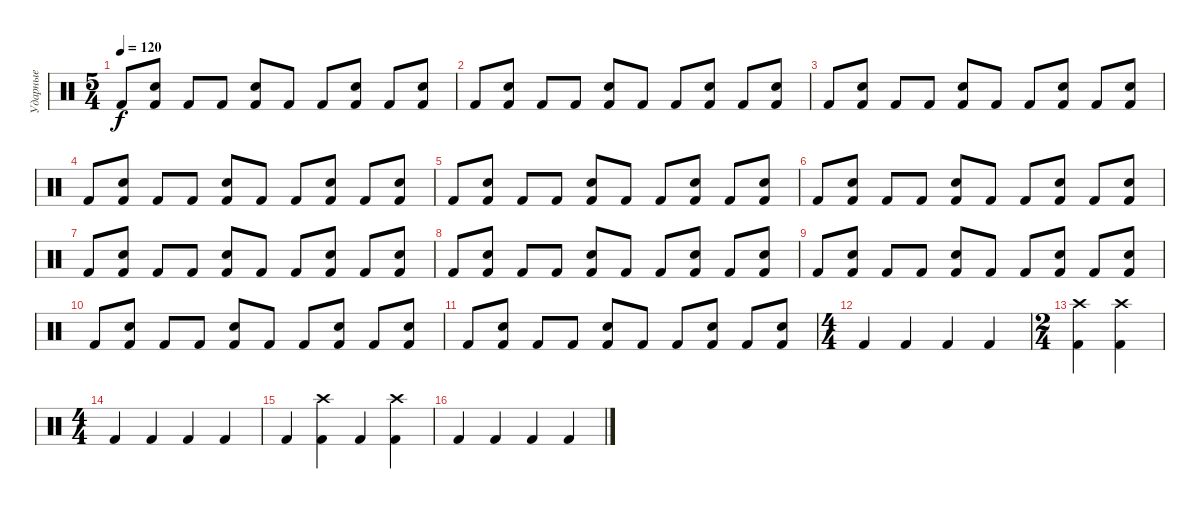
\track ("Ударные" "Ударные") {instrument percussion}
\staff {score}
\articulation defaults
\ts (5 4)
\tempo 120
\clef neutral
\ks c "Kick (hit) 2".8{dy f}
("Kick (hit) 2" "Electric Snare (hit)").8 "Kick (hit) 2".8 "Kick (hit) 2".8 ("Kick (hit) 2" "Electric Snare (hit)").8 "Kick (hit) 2".8 "Kick (hit) 2".8 ("Kick (hit) 2" "Electric Snare (hit)").8 "Kick (hit) 2".8 ("Kick (hit) 2" "Electric Snare (hit)").8 |
"Kick (hit) 2".8 ("Kick (hit) 2" "Electric Snare (hit)").8 "Kick (hit) 2".8 "Kick (hit) 2".8 ("Kick (hit) 2" "Electric Snare (hit)").8 "Kick (hit) 2".8 "Kick (hit) 2".8 ("Kick (hit) 2" "Electric Snare (hit)").8 "Kick (hit) 2".8 ("Kick (hit) 2" "Electric Snare (hit)").8 |
"Kick (hit) 2".8 ("Kick (hit) 2" "Electric Snare (hit)").8 "Kick (hit) 2".8 "Kick (hit) 2".8 ("Kick (hit) 2" "Electric Snare (hit)").8 "Kick (hit) 2".8 "Kick (hit) 2".8 ("Kick (hit) 2" "Electric Snare (hit)").8 "Kick (hit) 2".8 ("Kick (hit) 2" "Electric Snare (hit)").8 |
"Kick (hit) 2".8 ("Kick (hit) 2" "Electric Snare (hit)").8 "Kick (hit) 2".8 "Kick (hit) 2".8 ("Kick (hit) 2" "Electric Snare (hit)").8 "Kick (hit) 2".8 "Kick (hit) 2".8 ("Kick (hit) 2" "Electric Snare (hit)").8 "Kick (hit) 2".8 ("Kick (hit) 2" "Electric Snare (hit)").8 |
"Kick (hit) 2".8 ("Kick (hit) 2" "Electric Snare (hit)").8 "Kick (hit) 2".8 "Kick (hit) 2".8 ("Kick (hit) 2" "Electric Snare (hit)").8 "Kick (hit) 2".8 "Kick (hit) 2".8 ("Kick (hit) 2" "Electric Snare (hit)").8 "Kick (hit) 2".8 ("Kick (hit) 2" "Electric Snare (hit)").8 |
"Kick (hit) 2".8 ("Kick (hit) 2" "Electric Snare (hit)").8 "Kick (hit) 2".8 "Kick (hit) 2".8 ("Kick (hit) 2" "Electric Snare (hit)").8 "Kick (hit) 2".8 "Kick (hit) 2".8 ("Kick (hit) 2" "Electric Snare (hit)").8 "Kick (hit) 2".8 ("Kick (hit) 2" "Electric Snare (hit)").8 |
"Kick (hit) 2".8 ("Kick (hit) 2" "Electric Snare (hit)").8 "Kick (hit) 2".8 "Kick (hit) 2".8 ("Kick (hit) 2" "Electric Snare (hit)").8 "Kick (hit) 2".8 "Kick (hit) 2".8 ("Kick (hit) 2" "Electric Snare (hit)").8 "Kick (hit) 2".8 ("Kick (hit) 2" "Electric Snare (hit)").8 |
"Kick (hit) 2".8 ("Kick (hit) 2" "Electric Snare (hit)").8 "Kick (hit) 2".8 "Kick (hit) 2".8 ("Kick (hit) 2" "Electric Snare (hit)").8 "Kick (hit) 2".8 "Kick (hit) 2".8 ("Kick (hit) 2" "Electric Snare (hit)").8 "Kick (hit) 2".8 ("Kick (hit) 2" "Electric Snare (hit)").8 |
"Kick (hit) 2".8 ("Kick (hit) 2" "Electric Snare (hit)").8 "Kick (hit) 2".8 "Kick (hit) 2".8 ("Kick (hit) 2" "Electric Snare (hit)").8 "Kick (hit) 2".8 "Kick (hit) 2".8 ("Kick (hit) 2" "Electric Snare (hit)").8 "Kick (hit) 2".8 ("Kick (hit) 2" "Electric Snare (hit)").8 |
"Kick (hit) 2".8 ("Kick (hit) 2" "Electric Snare (hit)").8 "Kick (hit) 2".8 "Kick (hit) 2".8 ("Kick (hit) 2" "Electric Snare (hit)").8 "Kick (hit) 2".8 "Kick (hit) 2".8 ("Kick (hit) 2" "Electric Snare (hit)").8 "Kick (hit) 2".8 ("Kick (hit) 2" "Electric Snare (hit)").8 |
"Kick (hit) 2".8 ("Kick (hit) 2" "Electric Snare (hit)").8 "Kick (hit) 2".8 "Kick (hit) 2".8 ("Kick (hit) 2" "Electric Snare (hit)").8 "Kick (hit) 2".8 "Kick (hit) 2".8 ("Kick (hit) 2" "Electric Snare (hit)").8 "Kick (hit) 2".8 ("Kick (hit) 2" "Electric Snare (hit)").8 |
\ts (4 4)
"Kick (hit) 2".4 "Kick (hit) 2".4 "Kick (hit) 2".4 "Kick (hit) 2".4 |
\ts (2 4)
("Kick (hit) 2" "Crash high (hit)").4 ("Kick (hit) 2" "Crash high (hit)").4 |
\ts (4 4)
"Kick (hit) 2".4 "Kick (hit) 2".4 "Kick (hit) 2".4 "Kick (hit) 2".4 |
"Kick (hit) 2".4 ("Kick (hit) 2" "Crash high (hit)").4 "Kick (hit) 2".4 ("Kick (hit) 2" "Crash high (hit)").4 |
"Kick (hit) 2".4 "Kick (hit) 2".4 "Kick (hit) 2".4 "Kick (hit) 2".4
